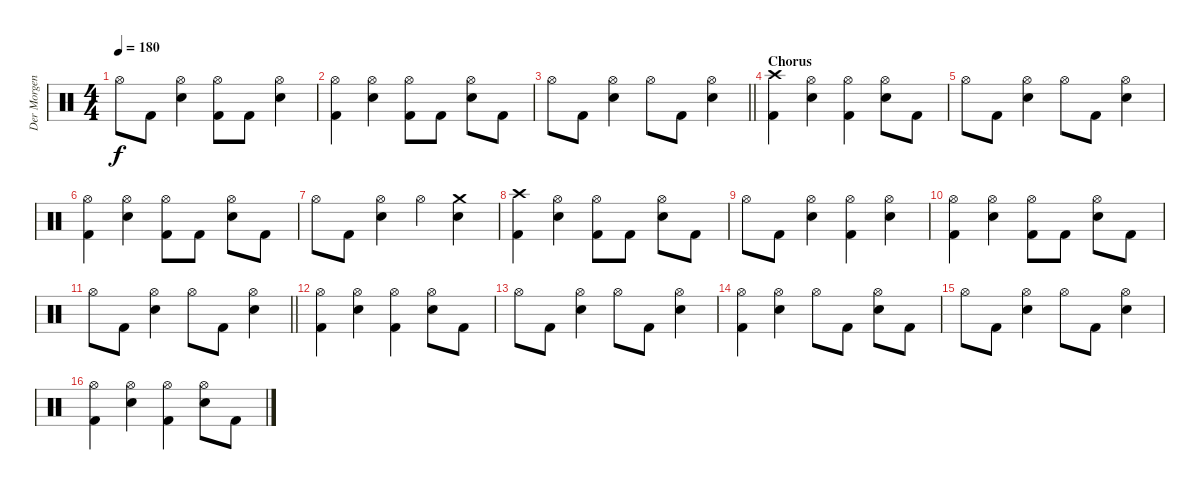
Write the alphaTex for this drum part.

\track ("Der Morgenstern" "Der Morgen") {instrument percussion}
\staff {score}
\articulation defaults
\ts (4 4)
\tempo 180
\clef neutral
\ks c "Hi-Hat (open)".8{dy f} "Kick (hit) 2".8
("Hi-Hat (open)" "Electric Snare (hit)").4 ("Hi-Hat (open)" "Kick (hit) 2").8 "Kick (hit) 2".8 ("Hi-Hat (open)" "Electric Snare (hit)").4 |
("Hi-Hat (open)" "Kick (hit) 2").4 ("Hi-Hat (open)" "Electric Snare (hit)").4 ("Hi-Hat (open)" "Kick (hit) 2").8 "Kick (hit) 2".8 ("Hi-Hat (open)" "Electric Snare (hit)").8 "Kick (hit) 2".8 |
\barLineRight lightlight "Hi-Hat (open)".8 "Kick (hit) 2".8
("Hi-Hat (open)" "Electric Snare (hit)").4 "Hi-Hat (open)".8 "Kick (hit) 2".8 ("Hi-Hat (open)" "Electric Snare (hit)").4 |
\section ("" "Chorus")
("Crash high (hit)" "Kick (hit) 2").4 ("Hi-Hat (open)" "Electric Snare (hit)").4 ("Hi-Hat (open)" "Kick (hit) 2").4 ("Hi-Hat (open)" "Electric Snare (hit)").8 "Kick (hit) 2".8 |
"Hi-Hat (open)".8 "Kick (hit) 2".8 ("Hi-Hat (open)" "Electric Snare (hit)").4 "Hi-Hat (open)".8 "Kick (hit) 2".8 ("Hi-Hat (open)" "Electric Snare (hit)").4 |
("Hi-Hat (open)" "Kick (hit) 2").4 ("Hi-Hat (open)" "Electric Snare (hit)").4 ("Hi-Hat (open)" "Kick (hit) 2").8 "Kick (hit) 2".8 ("Hi-Hat (open)" "Electric Snare (hit)").8 "Kick (hit) 2".8 |
"Hi-Hat (open)".8 "Kick (hit) 2".8 ("Hi-Hat (open)" "Electric Snare (hit)").4 "Hi-Hat (open)".4 ("Crash medium (hit)" "Electric Snare (hit)").4 |
("Crash high (hit)" "Kick (hit) 2").4 ("Hi-Hat (open)" "Electric Snare (hit)").4 ("Hi-Hat (open)" "Kick (hit) 2").8 "Kick (hit) 2".8 ("Hi-Hat (open)" "Electric Snare (hit)").8 "Kick (hit) 2".8 |
"Hi-Hat (open)".8 "Kick (hit) 2".8 ("Hi-Hat (open)" "Electric Snare (hit)").4 ("Hi-Hat (open)" "Kick (hit) 2").4 ("Hi-Hat (open)" "Electric Snare (hit)").4 |
("Hi-Hat (open)" "Kick (hit) 2").4 ("Hi-Hat (open)" "Electric Snare (hit)").4 ("Hi-Hat (open)" "Kick (hit) 2").8 "Kick (hit) 2".8 ("Hi-Hat (open)" "Electric Snare (hit)").8 "Kick (hit) 2".8 |
\barLineRight lightlight "Hi-Hat (open)".8 "Kick (hit) 2".8
("Hi-Hat (open)" "Electric Snare (hit)").4 "Hi-Hat (open)".8 "Kick (hit) 2".8 ("Hi-Hat (open)" "Electric Snare (hit)").4 |
("Hi-Hat (open)" "Kick (hit) 2").4 ("Hi-Hat (open)" "Electric Snare (hit)").4 ("Hi-Hat (open)" "Kick (hit) 2").4 ("Hi-Hat (open)" "Electric Snare (hit)").8 "Kick (hit) 2".8 |
"Hi-Hat (open)".8 "Kick (hit) 2".8 ("Hi-Hat (open)" "Electric Snare (hit)").4 "Hi-Hat (open)".8 "Kick (hit) 2".8 ("Hi-Hat (open)" "Electric Snare (hit)").4 |
("Hi-Hat (open)" "Kick (hit) 2").4 ("Hi-Hat (open)" "Electric Snare (hit)").4 "Hi-Hat (open)".8 "Kick (hit) 2".8 ("Hi-Hat (open)" "Electric Snare (hit)").8 "Kick (hit) 2".8 |
"Hi-Hat (open)".8 "Kick (hit) 2".8 ("Hi-Hat (open)" "Electric Snare (hit)").4 "Hi-Hat (open)".8 "Kick (hit) 2".8 ("Hi-Hat (open)" "Electric Snare (hit)").4 |
("Hi-Hat (open)" "Kick (hit) 2").4 ("Hi-Hat (open)" "Electric Snare (hit)").4 ("Hi-Hat (open)" "Kick (hit) 2").4 ("Hi-Hat (open)" "Electric Snare (hit)").8 "Kick (hit) 2".8
